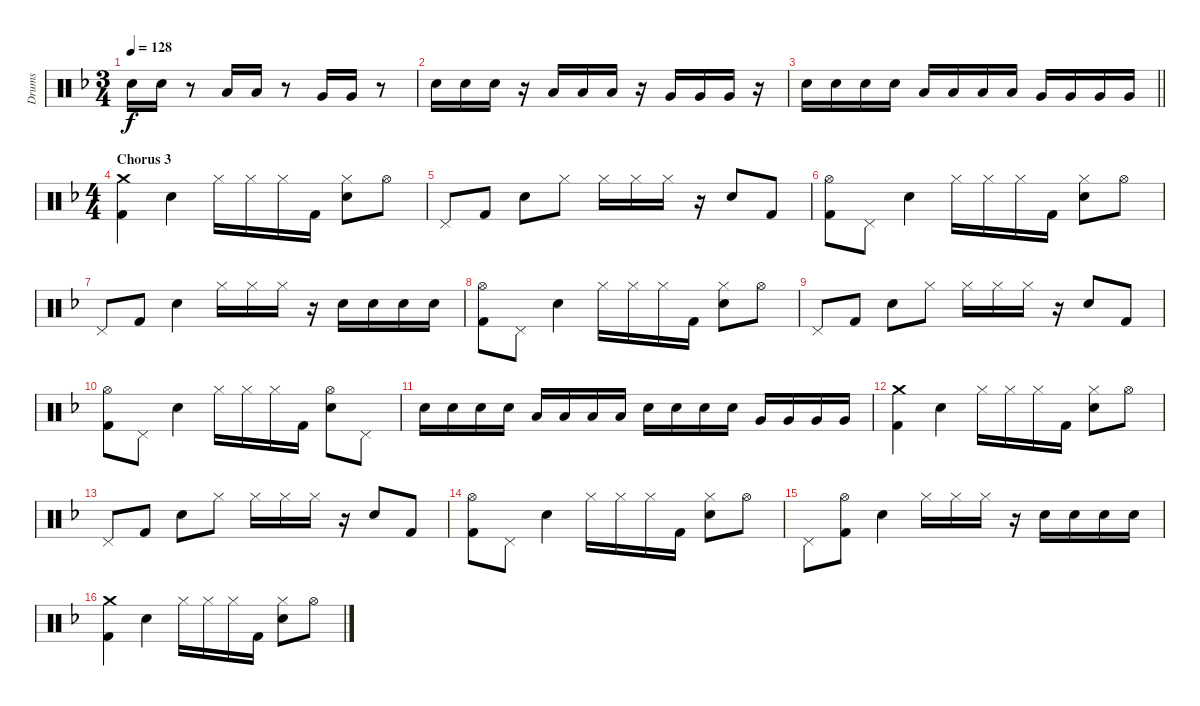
\track ("Drums" "Drums") {instrument percussion}
\staff {score}
\articulation defaults
\ts (3 4)
\tempo 128
\clef neutral
\ks f "Electric Snare (hit)".16{dy f} "Electric Snare (hit)".16
r.8 "Low Tom (hit)".16 "Low Tom (hit)".16 r.8 "Very Low Tom (hit)".16 "Very Low Tom (hit)".16 r.8 |
"Electric Snare (hit)".16 "Electric Snare (hit)".16 "Electric Snare (hit)".16 r.16 "Low Tom (hit)".16 "Low Tom (hit)".16 "Low Tom (hit)".16 r.16 "Very Low Tom (hit)".16 "Very Low Tom (hit)".16 "Very Low Tom (hit)".16 r.16 |
\barLineRight lightlight "Electric Snare (hit)".16 "Electric Snare (hit)".16 "Electric Snare (hit)".16 "Electric Snare (hit)".16 "Low Tom (hit)".16 "Low Tom (hit)".16 "Low Tom (hit)".16 "Low Tom (hit)".16 "Very Low Tom (hit)".16 "Very Low Tom (hit)".16 "Very Low Tom (hit)".16 "Very Low Tom (hit)".16
|
\ts (4 4)
\section ("" "Chorus 3")
("Crash medium (hit)" "Kick (hit) 2").4 "Electric Snare (hit)".4 "Hi-Hat (closed)".16 "Hi-Hat (closed)".16 "Hi-Hat (closed)".16 "Kick (hit) 2".16 ("Hi-Hat (closed)" "Electric Snare (hit)").8 "Hi-Hat (open)".8 |
"Pedal Hi-Hat (hit)".8 "Kick (hit) 2".8 "Electric Snare (hit)".8 "Hi-Hat (closed)".8 "Hi-Hat (closed)".16 "Hi-Hat (closed)".16 "Hi-Hat (closed)".16 r.16 "Electric Snare (hit)".8 "Kick (hit) 2".8 |
("Hi-Hat (open)" "Kick (hit) 2").8 "Pedal Hi-Hat (hit)".8 "Electric Snare (hit)".4 "Hi-Hat (closed)".16 "Hi-Hat (closed)".16 "Hi-Hat (closed)".16 "Kick (hit) 2".16 ("Hi-Hat (closed)" "Electric Snare (hit)").8 "Hi-Hat (open)".8 |
"Pedal Hi-Hat (hit)".8 "Kick (hit) 2".8 "Electric Snare (hit)".4 "Hi-Hat (closed)".16 "Hi-Hat (closed)".16 "Hi-Hat (closed)".16 r.16 "Electric Snare (hit)".16 "Electric Snare (hit)".16 "Electric Snare (hit)".16 "Electric Snare (hit)".16 |
("Hi-Hat (open)" "Kick (hit) 2").8 "Pedal Hi-Hat (hit)".8 "Electric Snare (hit)".4 "Hi-Hat (closed)".16 "Hi-Hat (closed)".16 "Hi-Hat (closed)".16 "Kick (hit) 2".16 ("Hi-Hat (closed)" "Electric Snare (hit)").8 "Hi-Hat (open)".8 |
"Pedal Hi-Hat (hit)".8 "Kick (hit) 2".8 "Electric Snare (hit)".8 "Hi-Hat (closed)".8 "Hi-Hat (closed)".16 "Hi-Hat (closed)".16 "Hi-Hat (closed)".16 r.16 "Electric Snare (hit)".8 "Kick (hit) 2".8 |
("Hi-Hat (open)" "Kick (hit) 2").8 "Pedal Hi-Hat (hit)".8 "Electric Snare (hit)".4 "Hi-Hat (closed)".16 "Hi-Hat (closed)".16 "Hi-Hat (closed)".16 "Kick (hit) 2".16 ("Hi-Hat (open)" "Electric Snare (hit)").8 "Pedal Hi-Hat (hit)".8 |
"Electric Snare (hit)".16 "Electric Snare (hit)".16 "Electric Snare (hit)".16 "Electric Snare (hit)".16 "Low Tom (hit)".16 "Low Tom (hit)".16 "Low Tom (hit)".16 "Low Tom (hit)".16 "Electric Snare (hit)".16 "Electric Snare (hit)".16 "Electric Snare (hit)".16 "Electric Snare (hit)".16 "Very Low Tom (hit)".16 "Very Low Tom (hit)".16 "Very Low Tom (hit)".16 "Very Low Tom (hit)".16 |
("Crash medium (hit)" "Kick (hit) 2").4 "Electric Snare (hit)".4 "Hi-Hat (closed)".16 "Hi-Hat (closed)".16 "Hi-Hat (closed)".16 "Kick (hit) 2".16 ("Hi-Hat (closed)" "Electric Snare (hit)").8 "Hi-Hat (open)".8 |
"Pedal Hi-Hat (hit)".8 "Kick (hit) 2".8 "Electric Snare (hit)".8 "Hi-Hat (closed)".8 "Hi-Hat (closed)".16 "Hi-Hat (closed)".16 "Hi-Hat (closed)".16 r.16 "Electric Snare (hit)".8 "Kick (hit) 2".8 |
("Hi-Hat (open)" "Kick (hit) 2").8 "Pedal Hi-Hat (hit)".8 "Electric Snare (hit)".4 "Hi-Hat (closed)".16 "Hi-Hat (closed)".16 "Hi-Hat (closed)".16 "Kick (hit) 2".16 ("Hi-Hat (closed)" "Electric Snare (hit)").8 "Hi-Hat (open)".8 |
"Pedal Hi-Hat (hit)".8 ("Hi-Hat (open)" "Kick (hit) 2").8 "Electric Snare (hit)".4 "Hi-Hat (closed)".16 "Hi-Hat (closed)".16 "Hi-Hat (closed)".16 r.16 "Electric Snare (hit)".16 "Electric Snare (hit)".16 "Electric Snare (hit)".16 "Electric Snare (hit)".16 |
("Crash medium (hit)" "Kick (hit) 2").4 "Electric Snare (hit)".4 "Hi-Hat (closed)".16 "Hi-Hat (closed)".16 "Hi-Hat (closed)".16 "Kick (hit) 2".16 ("Hi-Hat (closed)" "Electric Snare (hit)").8 "Hi-Hat (open)".8
